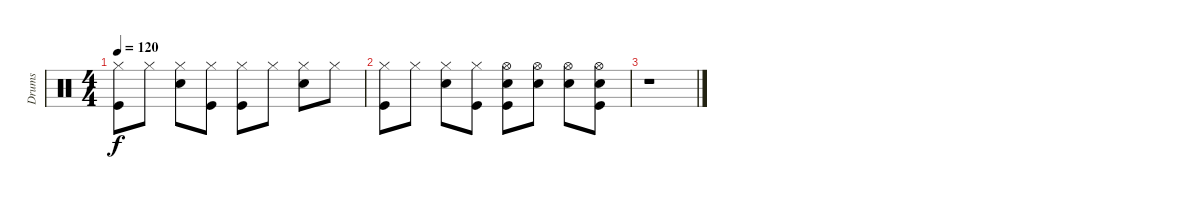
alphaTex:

\track ("Drums" "Drums") {instrument percussion}
\staff {score}
\articulation defaults
\ts (4 4)
\tempo 120
\clef neutral
\ks c
("Kick (hit)" "Hi-Hat (closed)").8{dy f} "Hi-Hat (closed)".8 ("Electric Snare (hit)" "Hi-Hat (closed)").8 ("Kick (hit)" "Hi-Hat (closed)").8 ("Kick (hit)" "Hi-Hat (closed)").8 "Hi-Hat (closed)".8 ("Electric Snare (hit)" "Hi-Hat (closed)").8 "Hi-Hat (closed)".8 |
("Kick (hit)" "Hi-Hat (closed)").8 "Hi-Hat (closed)".8 ("Electric Snare (hit)" "Hi-Hat (closed)").8 ("Kick (hit)" "Hi-Hat (closed)").8 ("Kick (hit)" "Electric Snare (hit)" "Hi-Hat (open)").8 ("Electric Snare (hit)" "Hi-Hat (open)").8 ("Electric Snare (hit)" "Hi-Hat (open)").8 ("Kick (hit)" "Electric Snare (hit)" "Hi-Hat (open)").8 |
r.1
